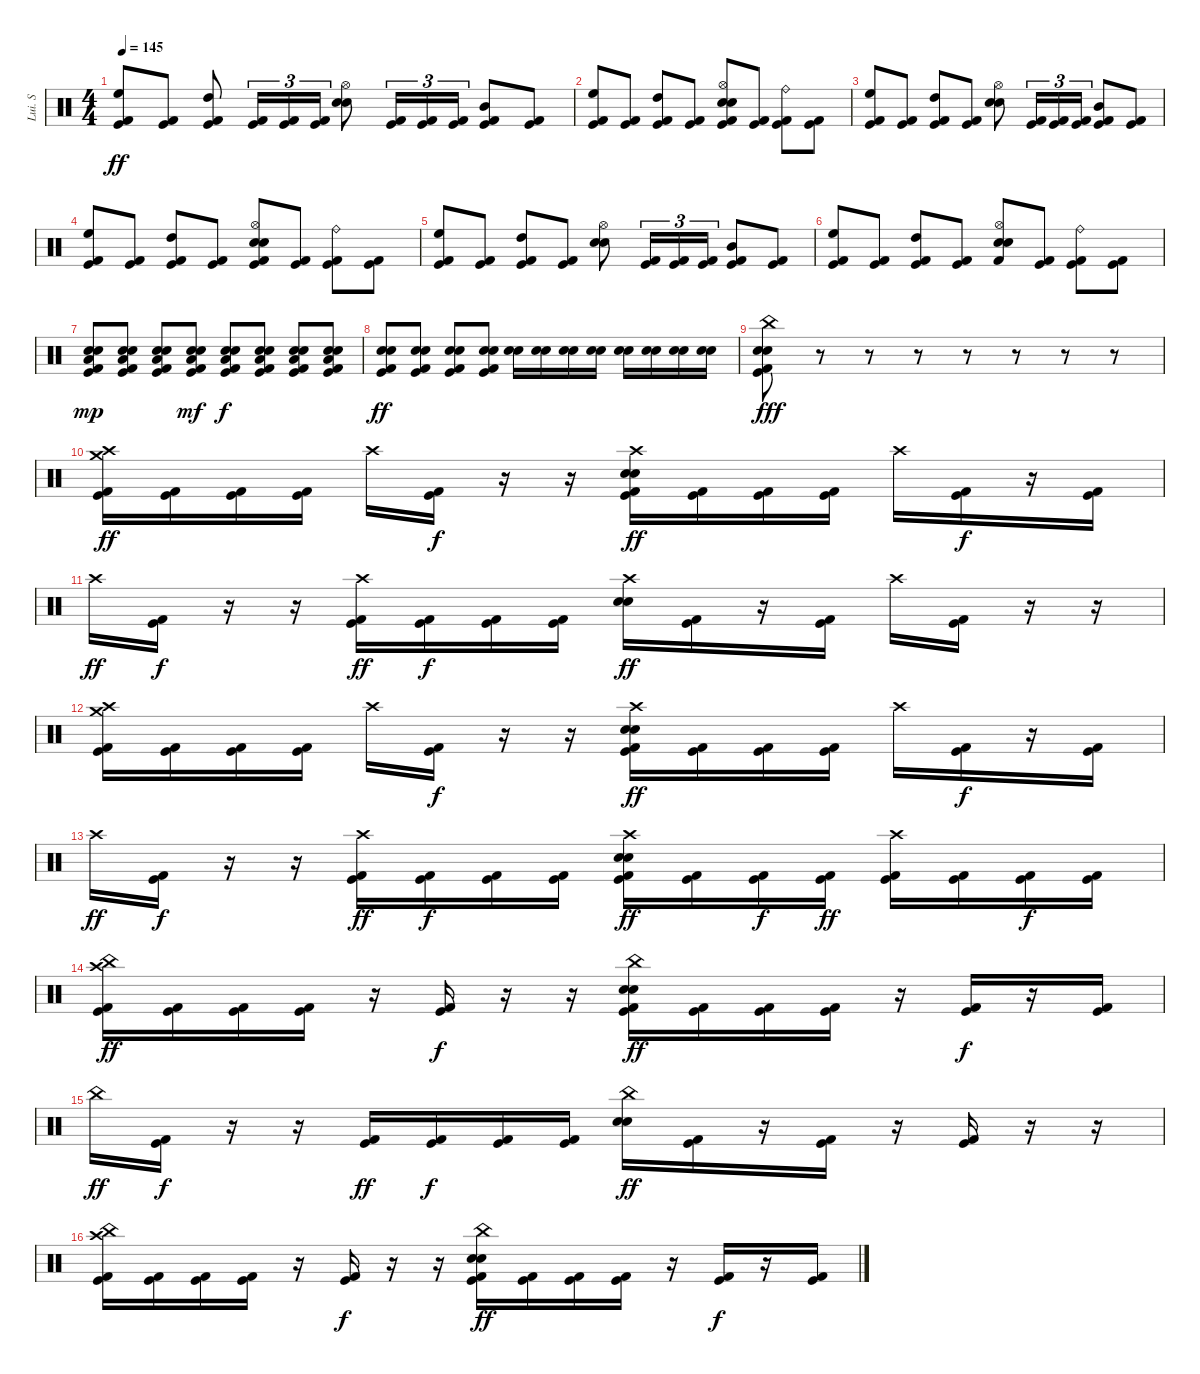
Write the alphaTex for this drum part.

\track ("Lui. S" "Lui. S") {instrument percussion}
\staff {score}
\articulation defaults
\ts (4 4)
\tempo 145
\clef neutral
\ks c
("High Floor Tom (hit)" "Kick (hit)" "Kick (hit) 2").8{dy ff} ("Kick (hit)" "Kick (hit) 2").8 ("High Tom (hit)" "Kick (hit)" "Kick (hit) 2").8 ("Kick (hit)" "Kick (hit) 2").16{tu (3 2)} ("Kick (hit)" "Kick (hit) 2").16{tu (3 2)} ("Kick (hit)" "Kick (hit) 2").16{tu (3 2)} ("Hi-Hat (open)" "Snare (hit) 2" "Electric Snare (hit)").8 ("Kick (hit)" "Kick (hit) 2").16{tu (3 2)} ("Kick (hit)" "Kick (hit) 2").16{tu (3 2)} ("Kick (hit)" "Kick (hit) 2").16{tu (3 2)} ("Mid Tom (hit)" "Kick (hit)" "Kick (hit) 2").8 ("Kick (hit)" "Kick (hit) 2").8 |
("High Floor Tom (hit)" "Kick (hit)" "Kick (hit) 2").8 ("Kick (hit)" "Kick (hit) 2").8 ("High Tom (hit)" "Kick (hit)" "Kick (hit) 2").8 ("Kick (hit)" "Kick (hit) 2").8 ("Snare (hit) 2" "Hi-Hat (open)" "Kick (hit)" "Electric Snare (hit)" "Kick (hit) 2").8 ("Kick (hit)" "Kick (hit) 2").8 ("Ride (bell)" "Kick (hit)" "Kick (hit) 2").8 ("Kick (hit)" "Kick (hit) 2").8 |
("High Floor Tom (hit)" "Kick (hit)" "Kick (hit) 2").8 ("Kick (hit)" "Kick (hit) 2").8 ("High Tom (hit)" "Kick (hit)" "Kick (hit) 2").8 ("Kick (hit)" "Kick (hit) 2").8 ("Hi-Hat (open)" "Snare (hit) 2" "Electric Snare (hit)").8 ("Kick (hit)" "Kick (hit) 2").16{tu (3 2)} ("Kick (hit)" "Kick (hit) 2").16{tu (3 2)} ("Kick (hit)" "Kick (hit) 2").16{tu (3 2)} ("Mid Tom (hit)" "Kick (hit)" "Kick (hit) 2").8 ("Kick (hit)" "Kick (hit) 2").8 |
("High Floor Tom (hit)" "Kick (hit)" "Kick (hit) 2").8 ("Kick (hit)" "Kick (hit) 2").8 ("High Tom (hit)" "Kick (hit)" "Kick (hit) 2").8 ("Kick (hit)" "Kick (hit) 2").8 ("Snare (hit) 2" "Hi-Hat (open)" "Kick (hit)" "Electric Snare (hit)" "Kick (hit) 2").8 ("Kick (hit)" "Kick (hit) 2").8 ("Ride (bell)" "Kick (hit)" "Kick (hit) 2").8 ("Kick (hit)" "Kick (hit) 2").8 |
("High Floor Tom (hit)" "Kick (hit)" "Kick (hit) 2").8 ("Kick (hit)" "Kick (hit) 2").8 ("High Tom (hit)" "Kick (hit)" "Kick (hit) 2").8 ("Kick (hit)" "Kick (hit) 2").8 ("Hi-Hat (open)" "Snare (hit) 2" "Electric Snare (hit)").8 ("Kick (hit)" "Kick (hit) 2").16{tu (3 2)} ("Kick (hit)" "Kick (hit) 2").16{tu (3 2)} ("Kick (hit)" "Kick (hit) 2").16{tu (3 2)} ("Mid Tom (hit)" "Kick (hit)" "Kick (hit) 2").8 ("Kick (hit)" "Kick (hit) 2").8 |
("High Floor Tom (hit)" "Kick (hit)" "Kick (hit) 2").8 ("Kick (hit)" "Kick (hit) 2").8 ("High Tom (hit)" "Kick (hit)" "Kick (hit) 2").8 ("Kick (hit)" "Kick (hit) 2").8 ("Hi-Hat (open)" "Snare (hit) 2" "Electric Snare (hit)" "Kick (hit) 2").8 ("Kick (hit)" "Kick (hit) 2").8 ("Ride (bell)" "Kick (hit)" "Kick (hit) 2").8 ("Kick (hit)" "Kick (hit) 2").8 |
("Low Floor Tom (hit)" "Electric Snare (hit)" "Snare (hit) 2" "Kick (hit)" "Kick (hit) 2").8{dy mp} ("Low Floor Tom (hit)" "Electric Snare (hit)" "Snare (hit) 2" "Kick (hit)" "Kick (hit) 2").8 ("Low Floor Tom (hit)" "Electric Snare (hit)" "Snare (hit) 2" "Kick (hit)" "Kick (hit) 2").8 ("Low Floor Tom (hit)" "Electric Snare (hit)" "Snare (hit) 2" "Kick (hit)" "Kick (hit) 2").8{dy mf} ("Low Floor Tom (hit)" "Electric Snare (hit)" "Snare (hit) 2" "Kick (hit)" "Kick (hit) 2").8{dy f} ("Low Floor Tom (hit)" "Electric Snare (hit)" "Snare (hit) 2" "Kick (hit)" "Kick (hit) 2").8 ("Low Floor Tom (hit)" "Electric Snare (hit)" "Snare (hit) 2" "Kick (hit)" "Kick (hit) 2").8 ("Low Floor Tom (hit)" "Electric Snare (hit)" "Snare (hit) 2" "Kick (hit)" "Kick (hit) 2").8 |
("Electric Snare (hit)" "Snare (hit) 2" "Kick (hit)" "Kick (hit) 2").8{dy ff} ("Electric Snare (hit)" "Snare (hit) 2" "Kick (hit)" "Kick (hit) 2").8 ("Electric Snare (hit)" "Snare (hit) 2" "Kick (hit)" "Kick (hit) 2").8 ("Electric Snare (hit)" "Snare (hit) 2" "Kick (hit)" "Kick (hit) 2").8 ("Electric Snare (hit)" "Snare (hit) 2").16 ("Electric Snare (hit)" "Snare (hit) 2").16 ("Electric Snare (hit)" "Snare (hit) 2").16 ("Electric Snare (hit)" "Snare (hit) 2").16 ("Electric Snare (hit)" "Snare (hit) 2").16 ("Electric Snare (hit)" "Snare (hit) 2").16 ("Electric Snare (hit)" "Snare (hit) 2").16 ("Electric Snare (hit)" "Snare (hit) 2").16 |
("China (hit)" "Snare (hit) 2" "Electric Snare (hit)" "Kick (hit)" "Kick (hit) 2").8{dy fff} r.8{volume 0} r.8 r.8 r.8 r.8 r.8 r.8 |
("Crash high (hit)" "Crash medium (hit)" "Kick (hit)" "Kick (hit) 2").16{dy ff volume 15} ("Kick (hit)" "Kick (hit) 2").16 ("Kick (hit)" "Kick (hit) 2").16 ("Kick (hit)" "Kick (hit) 2").16 "Crash high (hit)".16 ("Kick (hit)" "Kick (hit) 2").16{dy f} r.16 r.16 ("Crash high (hit)" "Electric Snare (hit)" "Snare (hit) 2" "Kick (hit)" "Kick (hit) 2").16{dy ff} ("Kick (hit)" "Kick (hit) 2").16 ("Kick (hit)" "Kick (hit) 2").16 ("Kick (hit)" "Kick (hit) 2").16 "Crash high (hit)".16 ("Kick (hit)" "Kick (hit) 2").16{dy f} r.16 ("Kick (hit)" "Kick (hit) 2").16 |
"Crash high (hit)".16{dy ff} ("Kick (hit)" "Kick (hit) 2").16{dy f} r.16 r.16 ("Crash high (hit)" "Kick (hit)" "Kick (hit) 2").16{dy ff} ("Kick (hit)" "Kick (hit) 2").16{dy f} ("Kick (hit)" "Kick (hit) 2").16 ("Kick (hit)" "Kick (hit) 2").16 ("Crash high (hit)" "Electric Snare (hit)" "Snare (hit) 2").16{dy ff} ("Kick (hit)" "Kick (hit) 2").16 r.16 ("Kick (hit)" "Kick (hit) 2").16 "Crash high (hit)".16 ("Kick (hit)" "Kick (hit) 2").16 r.16 r.16 |
("Crash high (hit)" "Crash medium (hit)" "Kick (hit)" "Kick (hit) 2").16 ("Kick (hit)" "Kick (hit) 2").16 ("Kick (hit)" "Kick (hit) 2").16 ("Kick (hit)" "Kick (hit) 2").16 "Crash high (hit)".16 ("Kick (hit)" "Kick (hit) 2").16{dy f} r.16 r.16 ("Crash high (hit)" "Electric Snare (hit)" "Snare (hit) 2" "Kick (hit)" "Kick (hit) 2").16{dy ff} ("Kick (hit)" "Kick (hit) 2").16 ("Kick (hit)" "Kick (hit) 2").16 ("Kick (hit)" "Kick (hit) 2").16 "Crash high (hit)".16 ("Kick (hit)" "Kick (hit) 2").16{dy f} r.16 ("Kick (hit)" "Kick (hit) 2").16 |
"Crash high (hit)".16{dy ff} ("Kick (hit)" "Kick (hit) 2").16{dy f} r.16 r.16 ("Crash high (hit)" "Kick (hit)" "Kick (hit) 2").16{dy ff} ("Kick (hit)" "Kick (hit) 2").16{dy f} ("Kick (hit)" "Kick (hit) 2").16 ("Kick (hit)" "Kick (hit) 2").16 ("Crash high (hit)" "Electric Snare (hit)" "Snare (hit) 2" "Kick (hit)" "Kick (hit) 2").16{dy ff} ("Kick (hit)" "Kick (hit) 2").16 ("Kick (hit)" "Kick (hit) 2").16{dy f} ("Kick (hit)" "Kick (hit) 2").16{dy ff} ("Crash high (hit)" "Kick (hit)" "Kick (hit) 2").16 ("Kick (hit)" "Kick (hit) 2").16 ("Kick (hit)" "Kick (hit) 2").16{dy f} ("Kick (hit)" "Kick (hit) 2").16 |
("China (hit)" "Crash high (hit)" "Kick (hit)" "Kick (hit) 2").16{dy ff} ("Kick (hit)" "Kick (hit) 2").16 ("Kick (hit)" "Kick (hit) 2").16 ("Kick (hit)" "Kick (hit) 2").16 r.16 ("Kick (hit)" "Kick (hit) 2").16{dy f} r.16 r.16 ("China (hit)" "Electric Snare (hit)" "Snare (hit) 2" "Kick (hit)" "Kick (hit) 2").16{dy ff} ("Kick (hit)" "Kick (hit) 2").16 ("Kick (hit)" "Kick (hit) 2").16 ("Kick (hit)" "Kick (hit) 2").16 r.16 ("Kick (hit)" "Kick (hit) 2").16{dy f} r.16 ("Kick (hit)" "Kick (hit) 2").16 |
"China (hit)".16{dy ff} ("Kick (hit)" "Kick (hit) 2").16{dy f} r.16 r.16 ("Kick (hit)" "Kick (hit) 2").16{dy ff} ("Kick (hit)" "Kick (hit) 2").16{dy f} ("Kick (hit)" "Kick (hit) 2").16 ("Kick (hit)" "Kick (hit) 2").16 ("China (hit)" "Electric Snare (hit)" "Snare (hit) 2").16{dy ff} ("Kick (hit)" "Kick (hit) 2").16 r.16 ("Kick (hit)" "Kick (hit) 2").16 r.16 ("Kick (hit)" "Kick (hit) 2").16 r.16 r.16 |
("China (hit)" "Crash high (hit)" "Kick (hit)" "Kick (hit) 2").16 ("Kick (hit)" "Kick (hit) 2").16 ("Kick (hit)" "Kick (hit) 2").16 ("Kick (hit)" "Kick (hit) 2").16 r.16 ("Kick (hit)" "Kick (hit) 2").16{dy f} r.16 r.16 ("China (hit)" "Electric Snare (hit)" "Snare (hit) 2" "Kick (hit)" "Kick (hit) 2").16{dy ff} ("Kick (hit)" "Kick (hit) 2").16 ("Kick (hit)" "Kick (hit) 2").16 ("Kick (hit)" "Kick (hit) 2").16 r.16 ("Kick (hit)" "Kick (hit) 2").16{dy f} r.16 ("Kick (hit)" "Kick (hit) 2").16
